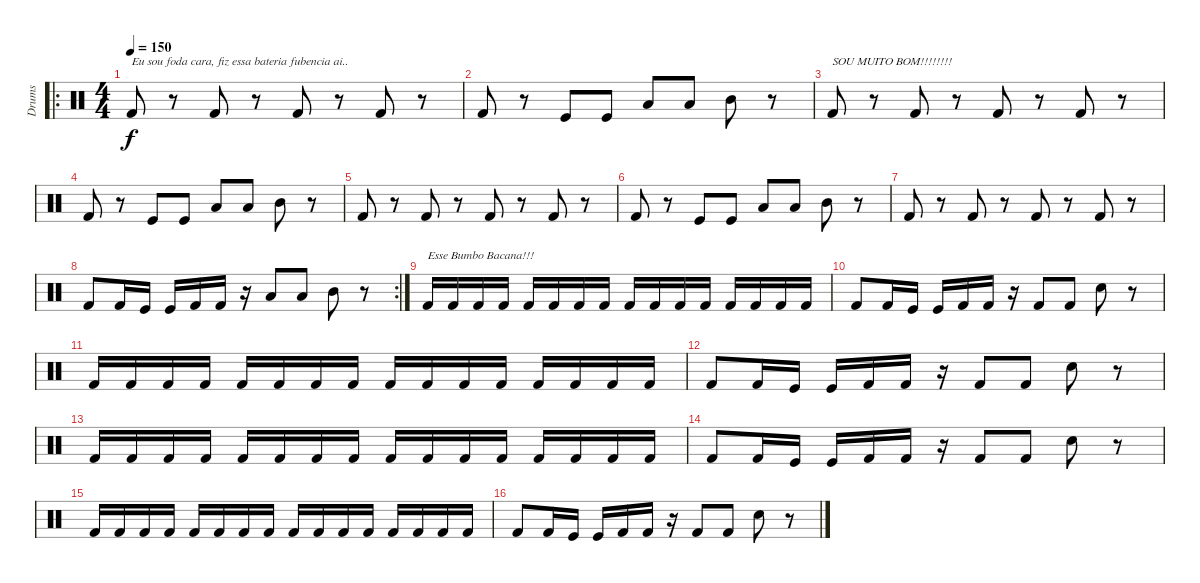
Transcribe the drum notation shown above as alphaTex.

\track ("Drums" "Drums") {instrument percussion}
\staff {score}
\articulation defaults
\ro
\ts (4 4)
\tempo 150
\clef neutral
\ks c "Kick (hit) 2".8{txt "Eu sou foda cara, fiz essa bateria fubencia ai.. " dy f}
r.8 "Kick (hit) 2".8 r.8 "Kick (hit) 2".8 r.8 "Kick (hit) 2".8 r.8 |
"Kick (hit) 2".8 r.8 "Kick (hit)".8 "Kick (hit)".8 "Low Tom (hit)".8 "Low Tom (hit)".8 "Mid Tom (hit)".8 r.8 |
"Kick (hit) 2".8{txt "SOU MUITO BOM!!!!!!!!"} r.8 "Kick (hit) 2".8 r.8 "Kick (hit) 2".8 r.8 "Kick (hit) 2".8 r.8 |
"Kick (hit) 2".8 r.8 "Kick (hit)".8 "Kick (hit)".8 "Low Tom (hit)".8 "Low Tom (hit)".8 "Mid Tom (hit)".8 r.8 |
"Kick (hit) 2".8 r.8 "Kick (hit) 2".8 r.8 "Kick (hit) 2".8 r.8 "Kick (hit) 2".8 r.8 |
"Kick (hit) 2".8 r.8 "Kick (hit)".8 "Kick (hit)".8 "Low Tom (hit)".8 "Low Tom (hit)".8 "Mid Tom (hit)".8 r.8 |
"Kick (hit) 2".8 r.8 "Kick (hit) 2".8 r.8 "Kick (hit) 2".8 r.8 "Kick (hit) 2".8 r.8 |
\rc 2 "Kick (hit) 2".8 "Kick (hit) 2".16 "Kick (hit)".16 "Kick (hit)".16 "Kick (hit) 2".16 "Kick (hit) 2".16
r.16 "Low Tom (hit)".8 "Low Tom (hit)".8 "Mid Tom (hit)".8 r.8 |
"Kick (hit) 2".16{txt "Esse Bumbo Bacana!!!"} "Kick (hit) 2".16 "Kick (hit) 2".16 "Kick (hit) 2".16 "Kick (hit) 2".16 "Kick (hit) 2".16 "Kick (hit) 2".16 "Kick (hit) 2".16 "Kick (hit) 2".16 "Kick (hit) 2".16 "Kick (hit) 2".16 "Kick (hit) 2".16 "Kick (hit) 2".16 "Kick (hit) 2".16 "Kick (hit) 2".16 "Kick (hit) 2".16 |
"Kick (hit) 2".8 "Kick (hit) 2".16 "Kick (hit)".16 "Kick (hit)".16 "Kick (hit) 2".16 "Kick (hit) 2".16 r.16 "Kick (hit) 2".8 "Kick (hit) 2".8 "Snare (hit) 2".8 r.8 |
"Kick (hit) 2".16 "Kick (hit) 2".16 "Kick (hit) 2".16 "Kick (hit) 2".16 "Kick (hit) 2".16 "Kick (hit) 2".16 "Kick (hit) 2".16 "Kick (hit) 2".16 "Kick (hit) 2".16 "Kick (hit) 2".16 "Kick (hit) 2".16 "Kick (hit) 2".16 "Kick (hit) 2".16 "Kick (hit) 2".16 "Kick (hit) 2".16 "Kick (hit) 2".16 |
"Kick (hit) 2".8 "Kick (hit) 2".16 "Kick (hit)".16 "Kick (hit)".16 "Kick (hit) 2".16 "Kick (hit) 2".16 r.16 "Kick (hit) 2".8 "Kick (hit) 2".8 "Snare (hit) 2".8 r.8 |
"Kick (hit) 2".16 "Kick (hit) 2".16 "Kick (hit) 2".16 "Kick (hit) 2".16 "Kick (hit) 2".16 "Kick (hit) 2".16 "Kick (hit) 2".16 "Kick (hit) 2".16 "Kick (hit) 2".16 "Kick (hit) 2".16 "Kick (hit) 2".16 "Kick (hit) 2".16 "Kick (hit) 2".16 "Kick (hit) 2".16 "Kick (hit) 2".16 "Kick (hit) 2".16 |
"Kick (hit) 2".8 "Kick (hit) 2".16 "Kick (hit)".16 "Kick (hit)".16 "Kick (hit) 2".16 "Kick (hit) 2".16 r.16 "Kick (hit) 2".8 "Kick (hit) 2".8 "Snare (hit) 2".8 r.8 |
"Kick (hit) 2".16 "Kick (hit) 2".16 "Kick (hit) 2".16 "Kick (hit) 2".16 "Kick (hit) 2".16 "Kick (hit) 2".16 "Kick (hit) 2".16 "Kick (hit) 2".16 "Kick (hit) 2".16 "Kick (hit) 2".16 "Kick (hit) 2".16 "Kick (hit) 2".16 "Kick (hit) 2".16 "Kick (hit) 2".16 "Kick (hit) 2".16 "Kick (hit) 2".16 |
"Kick (hit) 2".8 "Kick (hit) 2".16 "Kick (hit)".16 "Kick (hit)".16 "Kick (hit) 2".16 "Kick (hit) 2".16 r.16 "Kick (hit) 2".8 "Kick (hit) 2".8 "Snare (hit) 2".8 r.8
